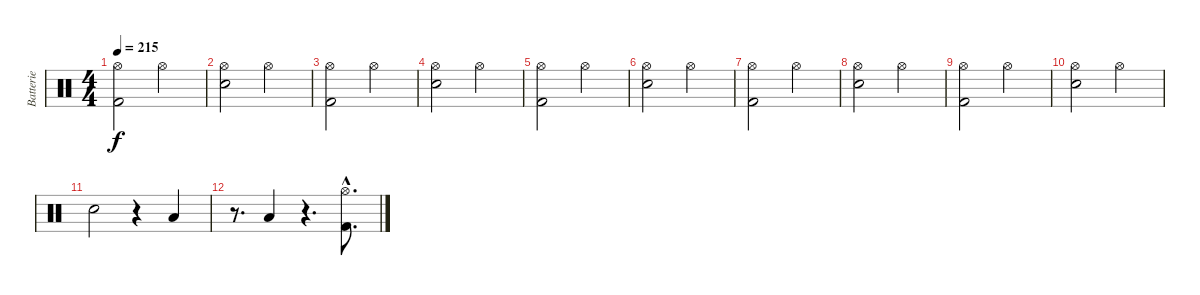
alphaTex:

\track ("Batterie" "Batterie") {instrument percussion}
\staff {score}
\articulation defaults
\ts (4 4)
\tempo 215
\clef neutral
\ks c
("Hi-Hat (open)" "Kick (hit) 2").2{dy f} "Hi-Hat (open)".2 |
("Hi-Hat (open)" "Electric Snare (hit)").2 "Hi-Hat (open)".2 |
("Hi-Hat (open)" "Kick (hit) 2").2 "Hi-Hat (open)".2 |
("Hi-Hat (open)" "Electric Snare (hit)").2 "Hi-Hat (open)".2 |
("Hi-Hat (open)" "Kick (hit) 2").2 "Hi-Hat (open)".2 |
("Hi-Hat (open)" "Electric Snare (hit)").2 "Hi-Hat (open)".2 |
("Hi-Hat (open)" "Kick (hit) 2").2 "Hi-Hat (open)".2 |
("Hi-Hat (open)" "Electric Snare (hit)").2 "Hi-Hat (open)".2 |
("Hi-Hat (open)" "Kick (hit) 2").2 "Hi-Hat (open)".2 |
("Hi-Hat (open)" "Electric Snare (hit)").2 "Hi-Hat (open)".2 |
"Electric Snare (hit)".2 r.4 "Low Tom (hit)".4 |
r.8{d} "Low Floor Tom (hit)".4 r.4{d} ("Hi-Hat (open)"{hac} "Kick (hit) 2"{hac}).8{d}
